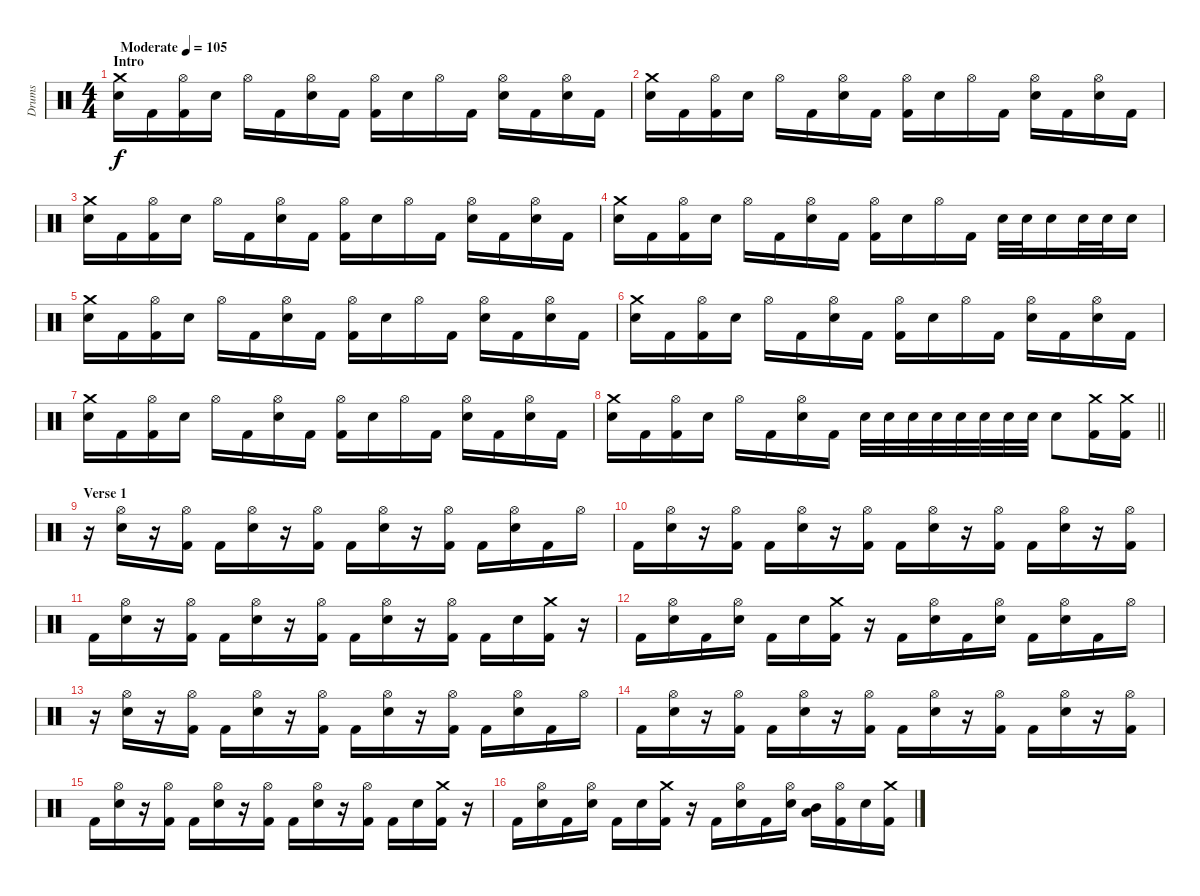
\track ("Drums" "Drums") {instrument percussion}
\staff {score}
\articulation defaults
\ts (4 4)
\section ("" "Intro")
\tempo (105 "Moderate")
\clef neutral
\ks c
("Crash medium (hit)" "Electric Snare (hit)").16{dy f} "Kick (hit) 2".16 ("Hi-Hat (open)" "Kick (hit) 2").16 "Electric Snare (hit)".16 "Hi-Hat (open)".16 "Kick (hit) 2".16 ("Hi-Hat (open)" "Electric Snare (hit)").16 "Kick (hit) 2".16 ("Hi-Hat (open)" "Kick (hit) 2").16 "Electric Snare (hit)".16 "Hi-Hat (open)".16 "Kick (hit) 2".16 ("Hi-Hat (open)" "Electric Snare (hit)").16 "Kick (hit) 2".16 ("Hi-Hat (open)" "Electric Snare (hit)").16 "Kick (hit) 2".16 |
("Crash medium (hit)" "Electric Snare (hit)").16 "Kick (hit) 2".16 ("Hi-Hat (open)" "Kick (hit) 2").16 "Electric Snare (hit)".16 "Hi-Hat (open)".16 "Kick (hit) 2".16 ("Hi-Hat (open)" "Electric Snare (hit)").16 "Kick (hit) 2".16 ("Hi-Hat (open)" "Kick (hit) 2").16 "Electric Snare (hit)".16 "Hi-Hat (open)".16 "Kick (hit) 2".16 ("Hi-Hat (open)" "Electric Snare (hit)").16 "Kick (hit) 2".16 ("Hi-Hat (open)" "Electric Snare (hit)").16 "Kick (hit) 2".16 |
("Crash medium (hit)" "Electric Snare (hit)").16 "Kick (hit) 2".16 ("Hi-Hat (open)" "Kick (hit) 2").16 "Electric Snare (hit)".16 "Hi-Hat (open)".16 "Kick (hit) 2".16 ("Hi-Hat (open)" "Electric Snare (hit)").16 "Kick (hit) 2".16 ("Hi-Hat (open)" "Kick (hit) 2").16 "Electric Snare (hit)".16 "Hi-Hat (open)".16 "Kick (hit) 2".16 ("Hi-Hat (open)" "Electric Snare (hit)").16 "Kick (hit) 2".16 ("Hi-Hat (open)" "Electric Snare (hit)").16 "Kick (hit) 2".16 |
("Crash medium (hit)" "Electric Snare (hit)").16 "Kick (hit) 2".16 ("Hi-Hat (open)" "Kick (hit) 2").16 "Electric Snare (hit)".16 "Hi-Hat (open)".16 "Kick (hit) 2".16 ("Hi-Hat (open)" "Electric Snare (hit)").16 "Kick (hit) 2".16 ("Hi-Hat (open)" "Kick (hit) 2").16 "Electric Snare (hit)".16 "Hi-Hat (open)".16 "Kick (hit) 2".16 "Electric Snare (hit)".32 "Electric Snare (hit)".32 "Electric Snare (hit)".16 "Electric Snare (hit)".32 "Electric Snare (hit)".32 "Electric Snare (hit)".16 |
("Crash medium (hit)" "Electric Snare (hit)").16 "Kick (hit) 2".16 ("Hi-Hat (open)" "Kick (hit) 2").16 "Electric Snare (hit)".16 "Hi-Hat (open)".16 "Kick (hit) 2".16 ("Hi-Hat (open)" "Electric Snare (hit)").16 "Kick (hit) 2".16 ("Hi-Hat (open)" "Kick (hit) 2").16 "Electric Snare (hit)".16 "Hi-Hat (open)".16 "Kick (hit) 2".16 ("Hi-Hat (open)" "Electric Snare (hit)").16 "Kick (hit) 2".16 ("Hi-Hat (open)" "Electric Snare (hit)").16 "Kick (hit) 2".16 |
("Crash medium (hit)" "Electric Snare (hit)").16 "Kick (hit) 2".16 ("Hi-Hat (open)" "Kick (hit) 2").16 "Electric Snare (hit)".16 "Hi-Hat (open)".16 "Kick (hit) 2".16 ("Hi-Hat (open)" "Electric Snare (hit)").16 "Kick (hit) 2".16 ("Hi-Hat (open)" "Kick (hit) 2").16 "Electric Snare (hit)".16 "Hi-Hat (open)".16 "Kick (hit) 2".16 ("Hi-Hat (open)" "Electric Snare (hit)").16 "Kick (hit) 2".16 ("Hi-Hat (open)" "Electric Snare (hit)").16 "Kick (hit) 2".16 |
("Crash medium (hit)" "Electric Snare (hit)").16 "Kick (hit) 2".16 ("Hi-Hat (open)" "Kick (hit) 2").16 "Electric Snare (hit)".16 "Hi-Hat (open)".16 "Kick (hit) 2".16 ("Hi-Hat (open)" "Electric Snare (hit)").16 "Kick (hit) 2".16 ("Hi-Hat (open)" "Kick (hit) 2").16 "Electric Snare (hit)".16 "Hi-Hat (open)".16 "Kick (hit) 2".16 ("Hi-Hat (open)" "Electric Snare (hit)").16 "Kick (hit) 2".16 ("Hi-Hat (open)" "Electric Snare (hit)").16 "Kick (hit) 2".16 |
\barLineRight lightlight
("Crash medium (hit)" "Electric Snare (hit)").16 "Kick (hit) 2".16 ("Hi-Hat (open)" "Kick (hit) 2").16 "Electric Snare (hit)".16 "Hi-Hat (open)".16 "Kick (hit) 2".16 ("Hi-Hat (open)" "Electric Snare (hit)").16 "Kick (hit) 2".16 "Electric Snare (hit)".32 "Electric Snare (hit)".32 "Electric Snare (hit)".32 "Electric Snare (hit)".32 "Electric Snare (hit)".32 "Electric Snare (hit)".32 "Electric Snare (hit)".32 "Electric Snare (hit)".32 "Electric Snare (hit)".8 ("Crash medium (hit)" "Kick (hit) 2").16 ("Crash medium (hit)" "Kick (hit) 2").16 |
\section ("" "Verse 1")
r.16 ("Hi-Hat (open)" "Electric Snare (hit)").16 r.16 ("Hi-Hat (open)" "Kick (hit) 2").16 "Kick (hit) 2".16 ("Hi-Hat (open)" "Electric Snare (hit)").16 r.16 ("Hi-Hat (open)" "Kick (hit) 2").16 "Kick (hit) 2".16 ("Hi-Hat (open)" "Electric Snare (hit)").16 r.16 ("Hi-Hat (open)" "Kick (hit) 2").16 "Kick (hit) 2".16 ("Hi-Hat (open)" "Electric Snare (hit)").16 "Kick (hit) 2".16 "Hi-Hat (open)".16 |
"Kick (hit) 2".16 ("Hi-Hat (open)" "Electric Snare (hit)").16 r.16 ("Hi-Hat (open)" "Kick (hit) 2").16 "Kick (hit) 2".16 ("Hi-Hat (open)" "Electric Snare (hit)").16 r.16 ("Hi-Hat (open)" "Kick (hit) 2").16 "Kick (hit) 2".16 ("Hi-Hat (open)" "Electric Snare (hit)").16 r.16 ("Hi-Hat (open)" "Kick (hit) 2").16 "Kick (hit) 2".16 ("Hi-Hat (open)" "Electric Snare (hit)").16 r.16 ("Hi-Hat (open)" "Kick (hit) 2").16 |
"Kick (hit) 2".16 ("Hi-Hat (open)" "Electric Snare (hit)").16 r.16 ("Hi-Hat (open)" "Kick (hit) 2").16 "Kick (hit) 2".16 ("Hi-Hat (open)" "Electric Snare (hit)").16 r.16 ("Hi-Hat (open)" "Kick (hit) 2").16 "Kick (hit) 2".16 ("Hi-Hat (open)" "Electric Snare (hit)").16 r.16 ("Hi-Hat (open)" "Kick (hit) 2").16 "Kick (hit) 2".16 "Electric Snare (hit)".16 ("Crash medium (hit)" "Kick (hit) 2").16 r.16 |
"Kick (hit) 2".16 ("Hi-Hat (open)" "Electric Snare (hit)").16 "Kick (hit) 2".16 ("Hi-Hat (open)" "Electric Snare (hit)").16 "Kick (hit) 2".16 "Electric Snare (hit)".16 ("Crash medium (hit)" "Kick (hit) 2").16 r.16 "Kick (hit) 2".16 ("Hi-Hat (open)" "Electric Snare (hit)").16 "Kick (hit) 2".16 ("Hi-Hat (open)" "Electric Snare (hit)").16 "Kick (hit) 2".16 ("Hi-Hat (open)" "Electric Snare (hit)").16 "Kick (hit) 2".16 "Hi-Hat (open)".16 |
r.16 ("Hi-Hat (open)" "Electric Snare (hit)").16 r.16 ("Hi-Hat (open)" "Kick (hit) 2").16 "Kick (hit) 2".16 ("Hi-Hat (open)" "Electric Snare (hit)").16 r.16 ("Hi-Hat (open)" "Kick (hit) 2").16 "Kick (hit) 2".16 ("Hi-Hat (open)" "Electric Snare (hit)").16 r.16 ("Hi-Hat (open)" "Kick (hit) 2").16 "Kick (hit) 2".16 ("Hi-Hat (open)" "Electric Snare (hit)").16 "Kick (hit) 2".16 "Hi-Hat (open)".16 |
"Kick (hit) 2".16 ("Hi-Hat (open)" "Electric Snare (hit)").16 r.16 ("Hi-Hat (open)" "Kick (hit) 2").16 "Kick (hit) 2".16 ("Hi-Hat (open)" "Electric Snare (hit)").16 r.16 ("Hi-Hat (open)" "Kick (hit) 2").16 "Kick (hit) 2".16 ("Hi-Hat (open)" "Electric Snare (hit)").16 r.16 ("Hi-Hat (open)" "Kick (hit) 2").16 "Kick (hit) 2".16 ("Hi-Hat (open)" "Electric Snare (hit)").16 r.16 ("Hi-Hat (open)" "Kick (hit) 2").16 |
"Kick (hit) 2".16 ("Hi-Hat (open)" "Electric Snare (hit)").16 r.16 ("Hi-Hat (open)" "Kick (hit) 2").16 "Kick (hit) 2".16 ("Hi-Hat (open)" "Electric Snare (hit)").16 r.16 ("Hi-Hat (open)" "Kick (hit) 2").16 "Kick (hit) 2".16 ("Hi-Hat (open)" "Electric Snare (hit)").16 r.16 ("Hi-Hat (open)" "Kick (hit) 2").16 "Kick (hit) 2".16 "Electric Snare (hit)".16 ("Crash medium (hit)" "Kick (hit) 2").16 r.16 |
"Kick (hit) 2".16 ("Hi-Hat (open)" "Electric Snare (hit)").16 "Kick (hit) 2".16 ("Hi-Hat (open)" "Electric Snare (hit)").16 "Kick (hit) 2".16 "Electric Snare (hit)".16 ("Crash medium (hit)" "Kick (hit) 2").16 r.16 "Kick (hit) 2".16 ("Hi-Hat (open)" "Electric Snare (hit)").16 "Kick (hit) 2".16 ("Hi-Hat (open)" "Electric Snare (hit)").16 ("Low Tom (hit)" "Mid Tom (hit)").16 ("Hi-Hat (open)" "Kick (hit) 2").16 "Electric Snare (hit)".16 ("Crash medium (hit)" "Kick (hit) 2").16
